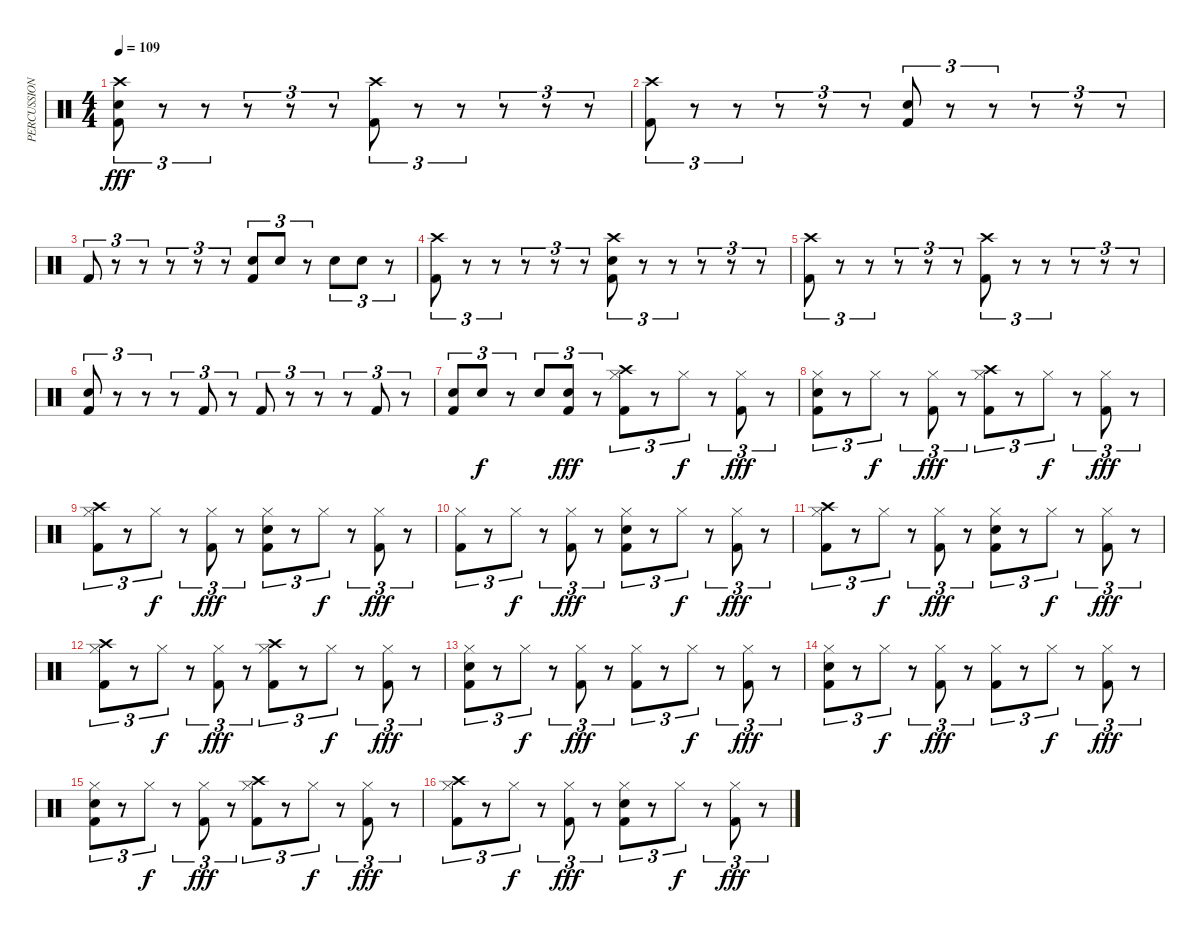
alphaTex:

\track ("PERCUSSION" "PERCUSSION") {instrument percussion}
\staff {score}
\articulation defaults
\ts (4 4)
\tempo 109
\clef neutral
\ks c
("Kick (hit) 2" "Snare (hit) 2" "Crash high (hit)").8{tu (3 2) dy fff} r.8{tu (3 2)} r.8{tu (3 2)} r.8{tu (3 2)} r.8{tu (3 2)} r.8{tu (3 2)} ("Kick (hit) 2" "Crash high (hit)").8{tu (3 2)} r.8{tu (3 2)} r.8{tu (3 2)} r.8{tu (3 2)} r.8{tu (3 2)} r.8{tu (3 2)} |
("Kick (hit) 2" "Crash high (hit)").8{tu (3 2)} r.8{tu (3 2)} r.8{tu (3 2)} r.8{tu (3 2)} r.8{tu (3 2)} r.8{tu (3 2)} ("Kick (hit) 2" "Snare (hit) 2").8{tu (3 2)} r.8{tu (3 2)} r.8{tu (3 2)} r.8{tu (3 2)} r.8{tu (3 2)} r.8{tu (3 2)} |
"Kick (hit) 2".8{tu (3 2)} r.8{tu (3 2)} r.8{tu (3 2)} r.8{tu (3 2)} r.8{tu (3 2)} r.8{tu (3 2)} ("Kick (hit) 2" "Snare (hit) 2").8{tu (3 2)} "Snare (hit) 2".8{tu (3 2)} r.8{tu (3 2)} "Snare (hit) 2".8{tu (3 2)} "Snare (hit) 2".8{tu (3 2)} r.8{tu (3 2)} |
("Kick (hit) 2" "Crash high (hit)").8{tu (3 2)} r.8{tu (3 2)} r.8{tu (3 2)} r.8{tu (3 2)} r.8{tu (3 2)} r.8{tu (3 2)} ("Kick (hit) 2" "Snare (hit) 2" "Crash high (hit)").8{tu (3 2)} r.8{tu (3 2)} r.8{tu (3 2)} r.8{tu (3 2)} r.8{tu (3 2)} r.8{tu (3 2)} |
("Kick (hit) 2" "Crash high (hit)").8{tu (3 2)} r.8{tu (3 2)} r.8{tu (3 2)} r.8{tu (3 2)} r.8{tu (3 2)} r.8{tu (3 2)} ("Kick (hit) 2" "Crash high (hit)").8{tu (3 2)} r.8{tu (3 2)} r.8{tu (3 2)} r.8{tu (3 2)} r.8{tu (3 2)} r.8{tu (3 2)} |
("Kick (hit) 2" "Snare (hit) 2").8{tu (3 2)} r.8{tu (3 2)} r.8{tu (3 2)} r.8{tu (3 2)} "Kick (hit) 2".8{tu (3 2)} r.8{tu (3 2)} "Kick (hit) 2".8{tu (3 2)} r.8{tu (3 2)} r.8{tu (3 2)} r.8{tu (3 2)} "Kick (hit) 2".8{tu (3 2)} r.8{tu (3 2)} |
("Kick (hit) 2" "Snare (hit) 2").8{tu (3 2)} "Snare (hit) 2".8{tu (3 2) dy f} r.8{tu (3 2)} "Snare (hit) 2".8{tu (3 2)} ("Kick (hit) 2" "Snare (hit) 2").8{tu (3 2) dy fff} r.8{tu (3 2)} ("Kick (hit) 2" "Hi-Hat (closed)" "Crash high (hit)").8{tu (3 2)} r.8{tu (3 2)} "Hi-Hat (closed)".8{tu (3 2) dy f} r.8{tu (3 2)} ("Kick (hit) 2" "Hi-Hat (closed)").8{tu (3 2) dy fff} r.8{tu (3 2)} |
("Kick (hit) 2" "Hi-Hat (closed)" "Snare (hit) 2").8{tu (3 2)} r.8{tu (3 2)} "Hi-Hat (closed)".8{tu (3 2) dy f} r.8{tu (3 2)} ("Kick (hit) 2" "Hi-Hat (closed)").8{tu (3 2) dy fff} r.8{tu (3 2)} ("Kick (hit) 2" "Hi-Hat (closed)" "Crash high (hit)").8{tu (3 2)} r.8{tu (3 2)} "Hi-Hat (closed)".8{tu (3 2) dy f} r.8{tu (3 2)} ("Kick (hit) 2" "Hi-Hat (closed)").8{tu (3 2) dy fff} r.8{tu (3 2)} |
("Kick (hit) 2" "Hi-Hat (closed)" "Crash high (hit)").8{tu (3 2)} r.8{tu (3 2)} "Hi-Hat (closed)".8{tu (3 2) dy f} r.8{tu (3 2)} ("Kick (hit) 2" "Hi-Hat (closed)").8{tu (3 2) dy fff} r.8{tu (3 2)} ("Kick (hit) 2" "Hi-Hat (closed)" "Snare (hit) 2").8{tu (3 2)} r.8{tu (3 2)} "Hi-Hat (closed)".8{tu (3 2) dy f} r.8{tu (3 2)} ("Kick (hit) 2" "Hi-Hat (closed)").8{tu (3 2) dy fff} r.8{tu (3 2)} |
("Kick (hit) 2" "Hi-Hat (closed)").8{tu (3 2)} r.8{tu (3 2)} "Hi-Hat (closed)".8{tu (3 2) dy f} r.8{tu (3 2)} ("Kick (hit) 2" "Hi-Hat (closed)").8{tu (3 2) dy fff} r.8{tu (3 2)} ("Kick (hit) 2" "Hi-Hat (closed)" "Snare (hit) 2").8{tu (3 2)} r.8{tu (3 2)} "Hi-Hat (closed)".8{tu (3 2) dy f} r.8{tu (3 2)} ("Kick (hit) 2" "Hi-Hat (closed)").8{tu (3 2) dy fff} r.8{tu (3 2)} |
("Kick (hit) 2" "Hi-Hat (closed)" "Crash high (hit)").8{tu (3 2)} r.8{tu (3 2)} "Hi-Hat (closed)".8{tu (3 2) dy f} r.8{tu (3 2)} ("Kick (hit) 2" "Hi-Hat (closed)").8{tu (3 2) dy fff} r.8{tu (3 2)} ("Kick (hit) 2" "Hi-Hat (closed)" "Snare (hit) 2").8{tu (3 2)} r.8{tu (3 2)} "Hi-Hat (closed)".8{tu (3 2) dy f} r.8{tu (3 2)} ("Kick (hit) 2" "Hi-Hat (closed)").8{tu (3 2) dy fff} r.8{tu (3 2)} |
("Kick (hit) 2" "Hi-Hat (closed)" "Crash high (hit)").8{tu (3 2)} r.8{tu (3 2)} "Hi-Hat (closed)".8{tu (3 2) dy f} r.8{tu (3 2)} ("Kick (hit) 2" "Hi-Hat (closed)").8{tu (3 2) dy fff} r.8{tu (3 2)} ("Kick (hit) 2" "Hi-Hat (closed)" "Crash high (hit)").8{tu (3 2)} r.8{tu (3 2)} "Hi-Hat (closed)".8{tu (3 2) dy f} r.8{tu (3 2)} ("Kick (hit) 2" "Hi-Hat (closed)").8{tu (3 2) dy fff} r.8{tu (3 2)} |
("Kick (hit) 2" "Hi-Hat (closed)" "Snare (hit) 2").8{tu (3 2)} r.8{tu (3 2)} "Hi-Hat (closed)".8{tu (3 2) dy f} r.8{tu (3 2)} ("Kick (hit) 2" "Hi-Hat (closed)").8{tu (3 2) dy fff} r.8{tu (3 2)} ("Kick (hit) 2" "Hi-Hat (closed)").8{tu (3 2)} r.8{tu (3 2)} "Hi-Hat (closed)".8{tu (3 2) dy f} r.8{tu (3 2)} ("Kick (hit) 2" "Hi-Hat (closed)").8{tu (3 2) dy fff} r.8{tu (3 2)} |
("Kick (hit) 2" "Hi-Hat (closed)" "Snare (hit) 2").8{tu (3 2)} r.8{tu (3 2)} "Hi-Hat (closed)".8{tu (3 2) dy f} r.8{tu (3 2)} ("Kick (hit) 2" "Hi-Hat (closed)").8{tu (3 2) dy fff} r.8{tu (3 2)} ("Kick (hit) 2" "Hi-Hat (closed)").8{tu (3 2)} r.8{tu (3 2)} "Hi-Hat (closed)".8{tu (3 2) dy f} r.8{tu (3 2)} ("Kick (hit) 2" "Hi-Hat (closed)").8{tu (3 2) dy fff} r.8{tu (3 2)} |
("Kick (hit) 2" "Hi-Hat (closed)" "Snare (hit) 2").8{tu (3 2)} r.8{tu (3 2)} "Hi-Hat (closed)".8{tu (3 2) dy f} r.8{tu (3 2)} ("Kick (hit) 2" "Hi-Hat (closed)").8{tu (3 2) dy fff} r.8{tu (3 2)} ("Kick (hit) 2" "Hi-Hat (closed)" "Crash high (hit)").8{tu (3 2)} r.8{tu (3 2)} "Hi-Hat (closed)".8{tu (3 2) dy f} r.8{tu (3 2)} ("Kick (hit) 2" "Hi-Hat (closed)").8{tu (3 2) dy fff} r.8{tu (3 2)} |
("Kick (hit) 2" "Hi-Hat (closed)" "Crash high (hit)").8{tu (3 2)} r.8{tu (3 2)} "Hi-Hat (closed)".8{tu (3 2) dy f} r.8{tu (3 2)} ("Kick (hit) 2" "Hi-Hat (closed)").8{tu (3 2) dy fff} r.8{tu (3 2)} ("Kick (hit) 2" "Hi-Hat (closed)" "Snare (hit) 2").8{tu (3 2)} r.8{tu (3 2)} "Hi-Hat (closed)".8{tu (3 2) dy f} r.8{tu (3 2)} ("Kick (hit) 2" "Hi-Hat (closed)").8{tu (3 2) dy fff} r.8{tu (3 2)}
